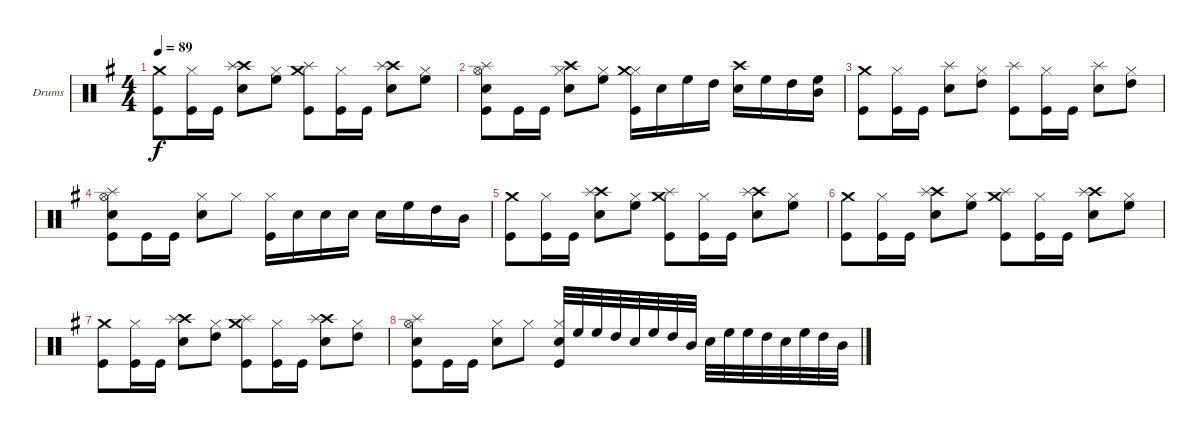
\bracketExtendMode groupsimilarinstruments
\firstSystemTrackNameOrientation horizontal
\otherSystemsTrackNameOrientation horizontal
\track ("Drumkit" "Drums") {instrument percussion}
\staff {score}
\articulation defaults
\ts (4 4)
\tempo 89
\clef neutral
\scale
0.461248
\ks eminor
("Kick (hit)" "Crash medium (hit)").8{dy f} ("Kick (hit)" "Hi-Hat (closed)").16 "Kick (hit)".16 ("Snare (hit) 2" "Crash high (hit)" "Splash (hit)").8 ("Hi-Hat (closed)" "High Floor Tom (hit)").8 ("Kick (hit)" "Crash medium (hit)" "Splash (hit)").8 ("Kick (hit)" "Hi-Hat (closed)").16 "Kick (hit)".16 ("Snare (hit) 2" "Crash high (hit)" "Splash (hit)").8 ("Hi-Hat (closed)" "High Floor Tom (hit)").8 |
\scale
0.538752 ("Kick (hit)" "Snare (hit) 2" "Hi-Hat (open)" "Splash (hit)").8 "Kick (hit)".16 "Kick (hit)".16 ("Snare (hit) 2" "Hi-Hat (closed)" "Crash high (hit)").8 ("Hi-Hat (closed)" "High Floor Tom (hit)").8 ("Kick (hit)" "Hi-Hat (closed)" "Crash medium (hit)").16 "Snare (hit) 2".16 "High Floor Tom (hit)".16 "High Tom (hit)".16 ("Snare (hit) 2" "Crash high (hit)").16 "High Floor Tom (hit)".16 "High Tom (hit)".16 ("Mid Tom (hit)" "High Floor Tom (hit)").16 |
\scale
0.46747 ("Kick (hit)" "Crash medium (hit)").8 ("Kick (hit)" "Hi-Hat (closed)").16 "Kick (hit)".16 ("Snare (hit) 2" "Splash (hit)").8 ("Hi-Hat (closed)" "High Tom (hit)").8 ("Kick (hit)" "Splash (hit)").8 ("Kick (hit)" "Hi-Hat (closed)").16 "Kick (hit)".16 ("Snare (hit) 2" "Splash (hit)").8 ("Hi-Hat (closed)" "High Tom (hit)").8 |
\scale
0.53253 ("Kick (hit)" "Snare (hit) 2" "Hi-Hat (open)" "Splash (hit)").8 "Kick (hit)".16 "Kick (hit)".16 ("Snare (hit) 2" "Hi-Hat (closed)").8 "Hi-Hat (closed)".8 ("Kick (hit)" "Hi-Hat (closed)").16 "Snare (hit) 2".16 "Snare (hit) 2".16 "Snare (hit) 2".16 "Snare (hit) 2".16 "High Floor Tom (hit)".16 "High Tom (hit)".16 "Mid Tom (hit)".16 |
\scale
0.5 ("Kick (hit)" "Crash medium (hit)").8 ("Kick (hit)" "Hi-Hat (closed)").16 "Kick (hit)".16 ("Snare (hit) 2" "Crash high (hit)" "Splash (hit)").8 ("Hi-Hat (closed)" "High Floor Tom (hit)").8 ("Kick (hit)" "Crash medium (hit)" "Splash (hit)").8 ("Kick (hit)" "Hi-Hat (closed)").16 "Kick (hit)".16 ("Snare (hit) 2" "Crash high (hit)" "Splash (hit)").8 ("Hi-Hat (closed)" "High Floor Tom (hit)").8 |
\scale
0.5 ("Kick (hit)" "Crash medium (hit)").8 ("Kick (hit)" "Hi-Hat (closed)").16 "Kick (hit)".16 ("Snare (hit) 2" "Crash high (hit)" "Splash (hit)").8 ("Hi-Hat (closed)" "High Floor Tom (hit)").8 ("Kick (hit)" "Crash medium (hit)" "Splash (hit)").8 ("Kick (hit)" "Hi-Hat (closed)").16 "Kick (hit)".16 ("Snare (hit) 2" "Crash high (hit)" "Splash (hit)").8 ("Hi-Hat (closed)" "High Floor Tom (hit)").8 |
\scale
0.451852 ("Kick (hit)" "Crash medium (hit)").8 ("Kick (hit)" "Hi-Hat (closed)").16 "Kick (hit)".16 ("Snare (hit) 2" "Crash high (hit)" "Splash (hit)").8 ("Hi-Hat (closed)" "High Tom (hit)").8 ("Kick (hit)" "Crash medium (hit)" "Splash (hit)").8 ("Kick (hit)" "Hi-Hat (closed)").16 "Kick (hit)".16 ("Snare (hit) 2" "Crash high (hit)" "Splash (hit)").8 ("Hi-Hat (closed)" "High Tom (hit)").8 |
\scale
0.548148 ("Kick (hit)" "Snare (hit) 2" "Hi-Hat (open)" "Splash (hit)").8 "Kick (hit)".16 "Kick (hit)".16 ("Snare (hit) 2" "Hi-Hat (closed)").8 "Hi-Hat (closed)".8 ("Kick (hit)" "Snare (hit) 2" "Hi-Hat (closed)").32 "High Floor Tom (hit)".32 "High Floor Tom (hit)".32 "High Tom (hit)".32 "Snare (hit) 2".32 "High Floor Tom (hit)".32 "High Tom (hit)".32 "Mid Tom (hit)".32 "Snare (hit) 2".32 "High Floor Tom (hit)".32 "High Floor Tom (hit)".32 "High Tom (hit)".32 "Snare (hit) 2".32 "High Floor Tom (hit)".32 "High Tom (hit)".32 "Mid Tom (hit)".32
